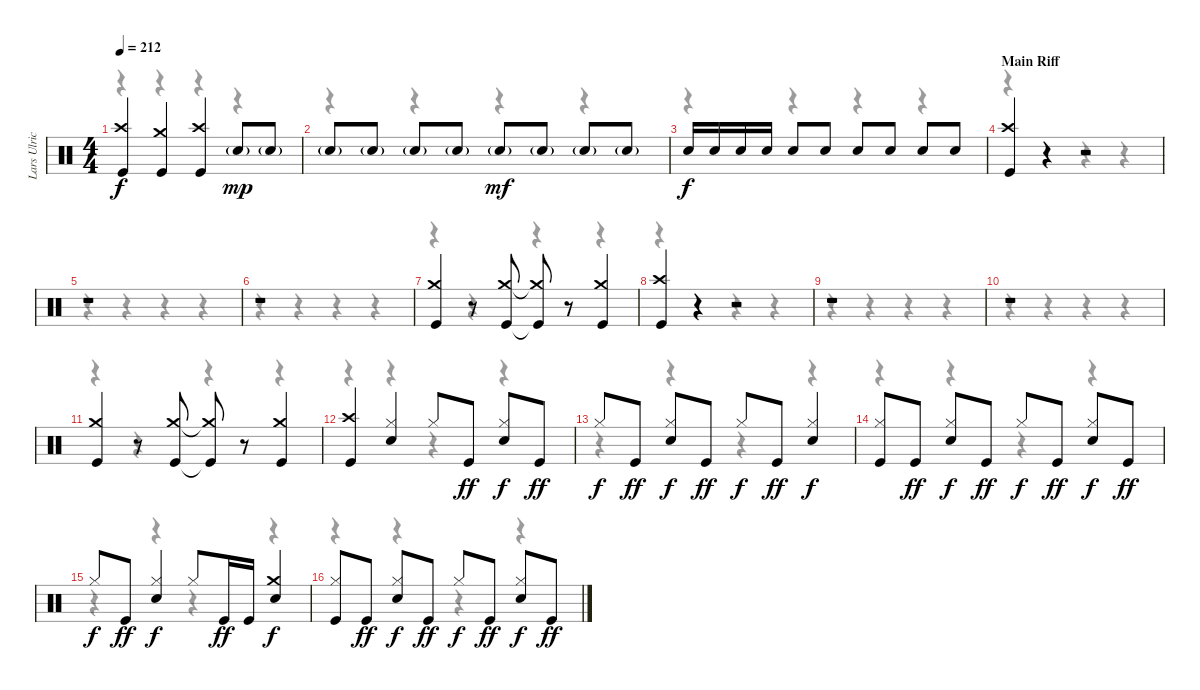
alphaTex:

\track ("Lars Ulrich" "Lars Ulric") {instrument percussion}
\staff {score}
\articulation defaults
\voice
\ts (4 4)
\tempo 212
\clef neutral
\ks c
("Crash high (hit)" "Kick (hit)").4{dy f} ("Crash medium (hit)" "Kick (hit)").4 ("Crash high (hit)" "Kick (hit)").4 "Snare (hit) 2"{g}.8{dy mp} "Snare (hit) 2"{g}.8 |
"Snare (hit) 2"{g}.8 "Snare (hit) 2"{g}.8 "Snare (hit) 2"{g}.8 "Snare (hit) 2"{g}.8 "Snare (hit) 2"{g}.8{dy mf} "Snare (hit) 2"{g}.8 "Snare (hit) 2"{g}.8 "Snare (hit) 2"{g}.8 |
"Snare (hit) 2".16{dy f} "Snare (hit) 2".16 "Snare (hit) 2".16 "Snare (hit) 2".16 "Snare (hit) 2".8 "Snare (hit) 2".8 "Snare (hit) 2".8 "Snare (hit) 2".8 "Snare (hit) 2".8 "Snare (hit) 2".8 |
\section ("" "Main Riff")
("Crash high (hit)" "Kick (hit)").4 r.4 r.2 |
r.1 |
r.1 |
("Crash medium (hit)" "Kick (hit)").4 r.8 ("Crash medium (hit)" "Kick (hit)").8 ("Crash medium (hit)"{t} "Kick (hit)"{t}).8 r.8 ("Crash medium (hit)" "Kick (hit)").4 |
("Crash high (hit)" "Kick (hit)").4 r.4 r.2 |
r.1 |
r.1 |
("Crash medium (hit)" "Kick (hit)").4 r.8 ("Crash medium (hit)" "Kick (hit)").8 ("Crash medium (hit)"{t} "Kick (hit)"{t}).8 r.8 ("Crash medium (hit)" "Kick (hit)").4 |
("Crash high (hit)" "Kick (hit)").4 ("Hi-Hat (closed)" "Snare (hit) 2").4 "Hi-Hat (closed)".8 "Kick (hit)".8{dy ff} ("Hi-Hat (closed)" "Snare (hit) 2").8{dy f} "Kick (hit)".8{dy ff} |
"Hi-Hat (closed)".8{dy f} "Kick (hit)".8{dy ff} ("Hi-Hat (closed)" "Snare (hit) 2").8{dy f} "Kick (hit)".8{dy ff} "Hi-Hat (closed)".8{dy f} "Kick (hit)".8{dy ff} ("Hi-Hat (closed)" "Snare (hit) 2").4{dy f} |
("Hi-Hat (closed)" "Kick (hit)").8 "Kick (hit)".8{dy ff} ("Hi-Hat (closed)" "Snare (hit) 2").8{dy f} "Kick (hit)".8{dy ff} "Hi-Hat (closed)".8{dy f} "Kick (hit)".8{dy ff} ("Hi-Hat (closed)" "Snare (hit) 2").8{dy f} "Kick (hit)".8{dy ff} |
"Hi-Hat (closed)".8{dy f} "Kick (hit)".8{dy ff} ("Hi-Hat (closed)" "Snare (hit) 2").4{dy f} "Hi-Hat (closed)".8 "Kick (hit)".16{dy ff} "Kick (hit)".16 ("Crash medium (hit)" "Snare (hit) 2").4{dy f} |
("Hi-Hat (closed)" "Kick (hit)").8 "Kick (hit)".8{dy ff} ("Hi-Hat (closed)" "Snare (hit) 2").8{dy f} "Kick (hit)".8{dy ff} "Hi-Hat (closed)".8{dy f} "Kick (hit)".8{dy ff} ("Hi-Hat (closed)" "Snare (hit) 2").8{dy f} "Kick (hit)".8{dy ff}
\voice
\clef neutral
\ottava regular
\simile none
\ks c
r.4{dy f} r.4 r.4 r.4 |
r.4 r.4 r.4 r.4 |
r.4 r.4 r.4 r.4 |
r.4 r.4 r.4 r.4 |
r.4 r.4 r.4 r.4 |
r.4 r.4 r.4 r.4 |
r.4 r.4 r.4 r.4 |
r.4 r.4 r.4 r.4 |
r.4 r.4 r.4 r.4 |
r.4 r.4 r.4 r.4 |
r.4 r.4 r.4 r.4 |
r.4 r.4 r.4 r.4 |
r.4 r.4 r.4 r.4 |
r.4 r.4 r.4 r.4 |
r.4 r.4 r.4 r.4 |
r.4 r.4 r.4 r.4
